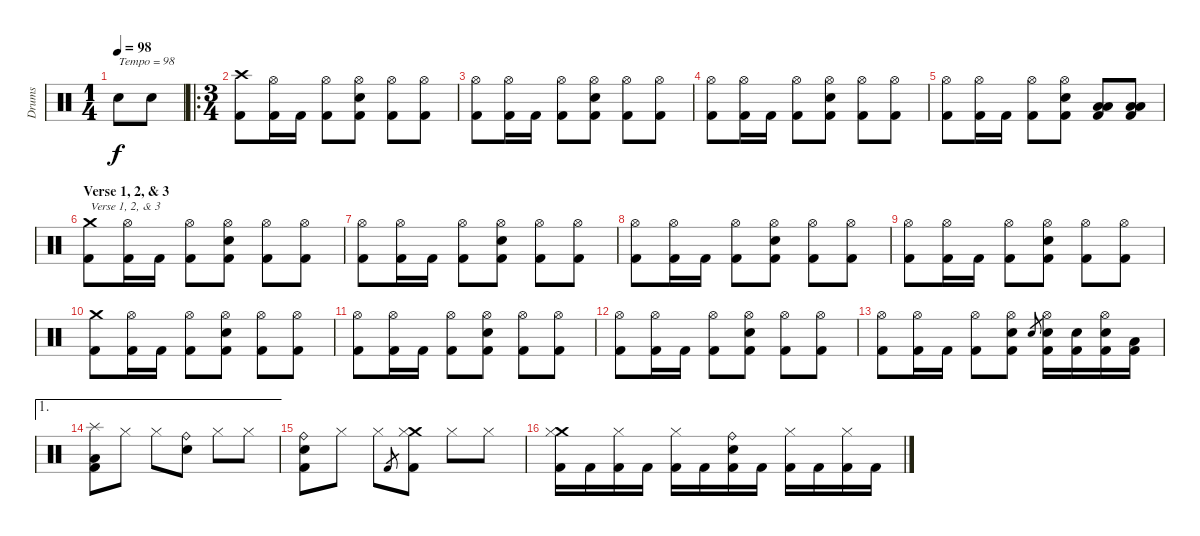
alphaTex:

\track ("Drums" "Drums") {instrument percussion}
\staff {score}
\articulation defaults
\ts (1 4)
\tempo 98
\clef neutral
\ks c "Electric Snare (hit)".8{txt "Tempo = 98" dy f} "Electric Snare (hit)".8
|
\ro
\ts (3 4)
("Crash high (hit)" "Kick (hit) 2").8 ("Hi-Hat (open)" "Kick (hit) 2").16 "Kick (hit) 2".16 ("Hi-Hat (open)" "Kick (hit) 2").8 ("Hi-Hat (open)" "Electric Snare (hit)" "Kick (hit) 2").8 ("Hi-Hat (open)" "Kick (hit) 2").8 ("Hi-Hat (open)" "Kick (hit) 2").8 |
("Hi-Hat (open)" "Kick (hit) 2").8 ("Hi-Hat (open)" "Kick (hit) 2").16 "Kick (hit) 2".16 ("Hi-Hat (open)" "Kick (hit) 2").8 ("Hi-Hat (open)" "Electric Snare (hit)" "Kick (hit) 2").8 ("Hi-Hat (open)" "Kick (hit) 2").8 ("Hi-Hat (open)" "Kick (hit) 2").8 |
("Hi-Hat (open)" "Kick (hit) 2").8 ("Hi-Hat (open)" "Kick (hit) 2").16 "Kick (hit) 2".16 ("Hi-Hat (open)" "Kick (hit) 2").8 ("Hi-Hat (open)" "Electric Snare (hit)" "Kick (hit) 2").8 ("Hi-Hat (open)" "Kick (hit) 2").8 ("Hi-Hat (open)" "Kick (hit) 2").8 |
("Hi-Hat (open)" "Kick (hit) 2").8 ("Hi-Hat (open)" "Kick (hit) 2").16 "Kick (hit) 2".16 ("Hi-Hat (open)" "Kick (hit) 2").8 ("Hi-Hat (open)" "Electric Snare (hit)" "Kick (hit) 2").8 ("Low Floor Tom (hit)" "Low Floor Tom (hit)" "Kick (hit) 2").8 ("Low Floor Tom (hit)" "Low Floor Tom (hit)" "Kick (hit) 2").8 |
\section ("" "Verse 1, 2, & 3")
("Crash medium (hit)" "Kick (hit) 2").8{txt "Verse 1, 2, & 3"} ("Hi-Hat (open)" "Kick (hit) 2").16 "Kick (hit) 2".16 ("Hi-Hat (open)" "Kick (hit) 2").8 ("Hi-Hat (open)" "Electric Snare (hit)" "Kick (hit) 2").8 ("Hi-Hat (open)" "Kick (hit) 2").8 ("Hi-Hat (open)" "Kick (hit) 2").8 |
("Hi-Hat (open)" "Kick (hit) 2").8 ("Hi-Hat (open)" "Kick (hit) 2").16 "Kick (hit) 2".16 ("Hi-Hat (open)" "Kick (hit) 2").8 ("Hi-Hat (open)" "Electric Snare (hit)" "Kick (hit) 2").8 ("Hi-Hat (open)" "Kick (hit) 2").8 ("Hi-Hat (open)" "Kick (hit) 2").8 |
("Hi-Hat (open)" "Kick (hit) 2").8 ("Hi-Hat (open)" "Kick (hit) 2").16 "Kick (hit) 2".16 ("Hi-Hat (open)" "Kick (hit) 2").8 ("Hi-Hat (open)" "Electric Snare (hit)" "Kick (hit) 2").8 ("Hi-Hat (open)" "Kick (hit) 2").8 ("Hi-Hat (open)" "Kick (hit) 2").8 |
("Hi-Hat (open)" "Kick (hit) 2").8 ("Hi-Hat (open)" "Kick (hit) 2").16 "Kick (hit) 2".16 ("Hi-Hat (open)" "Kick (hit) 2").8 ("Hi-Hat (open)" "Electric Snare (hit)" "Kick (hit) 2").8 ("Hi-Hat (open)" "Kick (hit) 2").8 ("Hi-Hat (open)" "Kick (hit) 2").8 |
("Crash medium (hit)" "Kick (hit) 2").8 ("Hi-Hat (open)" "Kick (hit) 2").16 "Kick (hit) 2".16 ("Hi-Hat (open)" "Kick (hit) 2").8 ("Hi-Hat (open)" "Electric Snare (hit)" "Kick (hit) 2").8 ("Hi-Hat (open)" "Kick (hit) 2").8 ("Hi-Hat (open)" "Kick (hit) 2").8 |
("Hi-Hat (open)" "Kick (hit) 2").8 ("Hi-Hat (open)" "Kick (hit) 2").16 "Kick (hit) 2".16 ("Hi-Hat (open)" "Kick (hit) 2").8 ("Hi-Hat (open)" "Electric Snare (hit)" "Kick (hit) 2").8 ("Hi-Hat (open)" "Kick (hit) 2").8 ("Hi-Hat (open)" "Kick (hit) 2").8 |
("Hi-Hat (open)" "Kick (hit) 2").8 ("Hi-Hat (open)" "Kick (hit) 2").16 "Kick (hit) 2".16 ("Hi-Hat (open)" "Kick (hit) 2").8 ("Hi-Hat (open)" "Electric Snare (hit)" "Kick (hit) 2").8 ("Hi-Hat (open)" "Kick (hit) 2").8 ("Hi-Hat (open)" "Kick (hit) 2").8 |
("Hi-Hat (open)" "Kick (hit) 2").8 ("Hi-Hat (open)" "Kick (hit) 2").16 "Kick (hit) 2".16 ("Hi-Hat (open)" "Kick (hit) 2").8 ("Hi-Hat (open)" "Electric Snare (hit)" "Kick (hit) 2").8 "Electric Snare (hit)".8{gr} ("Hi-Hat (open)" "Electric Snare (hit)" "Kick (hit) 2").16 ("Electric Snare (hit)" "Kick (hit) 2").16 ("Hi-Hat (open)" "Electric Snare (hit)" "Kick (hit) 2").16 ("Low Floor Tom (hit)" "Kick (hit) 2").16 |
\ae 1
("Splash (hit)" "Low Floor Tom (hit)" "Kick (hit) 2").8 "Hi-Hat (closed)".8 "Hi-Hat (closed)".8 ("Ride (bell)" "Electric Snare (hit)").8 "Hi-Hat (closed)".8 "Hi-Hat (closed)".8 |
("Ride (bell)" "Electric Snare (hit)" "Kick (hit) 2").8 "Hi-Hat (closed)".8 "Hi-Hat (closed)".8 "Kick (hit) 2".8{gr} ("Crash medium (hit)" "Hi-Hat (closed)" "Kick (hit) 2").8 "Hi-Hat (closed)".8 "Hi-Hat (closed)".8 |
("Crash medium (hit)" "Hi-Hat (closed)" "Kick (hit) 2").16 "Kick (hit) 2".16 ("Hi-Hat (closed)" "Kick (hit) 2").16 "Kick (hit) 2".16 ("Hi-Hat (closed)" "Kick (hit) 2").16 "Kick (hit) 2".16 ("Ride (bell)" "Electric Snare (hit)" "Kick (hit) 2").16 "Kick (hit) 2".16 ("Hi-Hat (closed)" "Kick (hit) 2").16 "Kick (hit) 2".16 ("Hi-Hat (closed)" "Kick (hit) 2").16 "Kick (hit) 2".16
